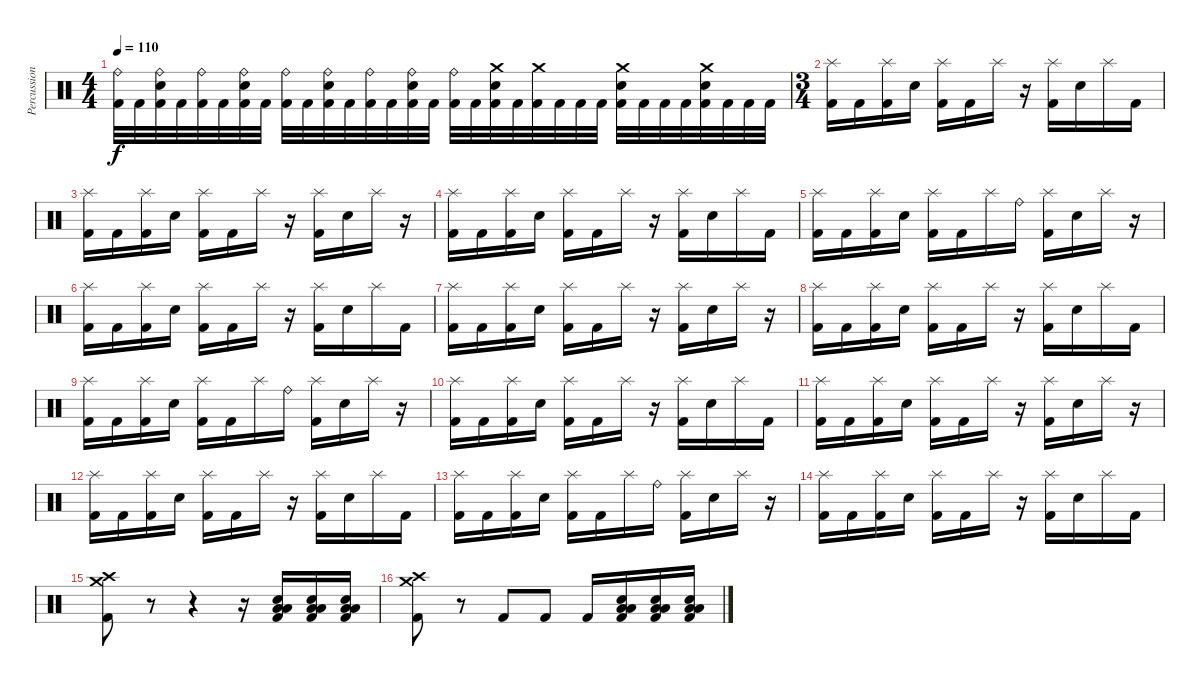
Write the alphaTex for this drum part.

\track ("Percussion" "Percussion") {instrument percussion}
\staff {score}
\articulation defaults
\ts (4 4)
\tempo 110
\clef neutral
\ks c
("Ride (bell)" "Kick (hit) 2").32{dy f} "Kick (hit) 2".32 ("Ride (bell)" "Electric Snare (hit)" "Kick (hit) 2").32 "Kick (hit) 2".32 ("Ride (bell)" "Kick (hit) 2").32 "Kick (hit) 2".32 ("Ride (bell)" "Electric Snare (hit)" "Kick (hit) 2").32 "Kick (hit) 2".32 ("Ride (bell)" "Kick (hit) 2").32 "Kick (hit) 2".32 ("Ride (bell)" "Electric Snare (hit)" "Kick (hit) 2").32 "Kick (hit) 2".32 ("Ride (bell)" "Kick (hit) 2").32 "Kick (hit) 2".32 ("Ride (bell)" "Electric Snare (hit)" "Kick (hit) 2").32 "Kick (hit) 2".32 ("Ride (bell)" "Kick (hit) 2").32 "Kick (hit) 2".32 ("Crash medium (hit)" "Electric Snare (hit)" "Kick (hit) 2").32 "Kick (hit) 2".32 ("Crash medium (hit)" "Kick (hit) 2").32 "Kick (hit) 2".32 "Kick (hit) 2".32 "Kick (hit) 2".32 ("Crash medium (hit)" "Electric Snare (hit)" "Kick (hit) 2").32 "Kick (hit) 2".32 "Kick (hit) 2".32 "Kick (hit) 2".32 ("Crash medium (hit)" "Electric Snare (hit)" "Kick (hit) 2").32 "Kick (hit) 2".32 "Kick (hit) 2".32 "Kick (hit) 2".32 |
\ts (3 4)
("Splash (hit)" "Kick (hit) 2").16 "Kick (hit) 2".16 ("Splash (hit)" "Kick (hit) 2").16 "Electric Snare (hit)".16 ("Splash (hit)" "Kick (hit) 2").16 "Kick (hit) 2".16 "Splash (hit)".16 r.16 ("Splash (hit)" "Kick (hit) 2").16 "Electric Snare (hit)".16 "Splash (hit)".16 "Kick (hit) 2".16 |
("Splash (hit)" "Kick (hit) 2").16 "Kick (hit) 2".16 ("Splash (hit)" "Kick (hit) 2").16 "Electric Snare (hit)".16 ("Splash (hit)" "Kick (hit) 2").16 "Kick (hit) 2".16 "Splash (hit)".16 r.16 ("Splash (hit)" "Kick (hit) 2").16 "Electric Snare (hit)".16 "Splash (hit)".16 r.16 |
("Splash (hit)" "Kick (hit) 2").16 "Kick (hit) 2".16 ("Splash (hit)" "Kick (hit) 2").16 "Electric Snare (hit)".16 ("Splash (hit)" "Kick (hit) 2").16 "Kick (hit) 2".16 "Splash (hit)".16 r.16 ("Splash (hit)" "Kick (hit) 2").16 "Electric Snare (hit)".16 "Splash (hit)".16 "Kick (hit) 2".16 |
("Splash (hit)" "Kick (hit) 2").16 "Kick (hit) 2".16 ("Splash (hit)" "Kick (hit) 2").16 "Electric Snare (hit)".16 ("Splash (hit)" "Kick (hit) 2").16 "Kick (hit) 2".16 "Splash (hit)".16 "Ride (bell)".16 ("Splash (hit)" "Kick (hit) 2").16 "Electric Snare (hit)".16 "Splash (hit)".16 r.16 |
("Splash (hit)" "Kick (hit) 2").16 "Kick (hit) 2".16 ("Splash (hit)" "Kick (hit) 2").16 "Electric Snare (hit)".16 ("Splash (hit)" "Kick (hit) 2").16 "Kick (hit) 2".16 "Splash (hit)".16 r.16 ("Splash (hit)" "Kick (hit) 2").16 "Electric Snare (hit)".16 "Splash (hit)".16 "Kick (hit) 2".16 |
("Splash (hit)" "Kick (hit) 2").16 "Kick (hit) 2".16 ("Splash (hit)" "Kick (hit) 2").16 "Electric Snare (hit)".16 ("Splash (hit)" "Kick (hit) 2").16 "Kick (hit) 2".16 "Splash (hit)".16 r.16 ("Splash (hit)" "Kick (hit) 2").16 "Electric Snare (hit)".16 "Splash (hit)".16 r.16 |
("Splash (hit)" "Kick (hit) 2").16 "Kick (hit) 2".16 ("Splash (hit)" "Kick (hit) 2").16 "Electric Snare (hit)".16 ("Splash (hit)" "Kick (hit) 2").16 "Kick (hit) 2".16 "Splash (hit)".16 r.16 ("Splash (hit)" "Kick (hit) 2").16 "Electric Snare (hit)".16 "Splash (hit)".16 "Kick (hit) 2".16 |
("Splash (hit)" "Kick (hit) 2").16 "Kick (hit) 2".16 ("Splash (hit)" "Kick (hit) 2").16 "Electric Snare (hit)".16 ("Splash (hit)" "Kick (hit) 2").16 "Kick (hit) 2".16 "Splash (hit)".16 "Ride (bell)".16 ("Splash (hit)" "Kick (hit) 2").16 "Electric Snare (hit)".16 "Splash (hit)".16 r.16 |
("Splash (hit)" "Kick (hit) 2").16 "Kick (hit) 2".16 ("Splash (hit)" "Kick (hit) 2").16 "Electric Snare (hit)".16 ("Splash (hit)" "Kick (hit) 2").16 "Kick (hit) 2".16 "Splash (hit)".16 r.16 ("Splash (hit)" "Kick (hit) 2").16 "Electric Snare (hit)".16 "Splash (hit)".16 "Kick (hit) 2".16 |
("Splash (hit)" "Kick (hit) 2").16 "Kick (hit) 2".16 ("Splash (hit)" "Kick (hit) 2").16 "Electric Snare (hit)".16 ("Splash (hit)" "Kick (hit) 2").16 "Kick (hit) 2".16 "Splash (hit)".16 r.16 ("Splash (hit)" "Kick (hit) 2").16 "Electric Snare (hit)".16 "Splash (hit)".16 r.16 |
("Splash (hit)" "Kick (hit) 2").16 "Kick (hit) 2".16 ("Splash (hit)" "Kick (hit) 2").16 "Electric Snare (hit)".16 ("Splash (hit)" "Kick (hit) 2").16 "Kick (hit) 2".16 "Splash (hit)".16 r.16 ("Splash (hit)" "Kick (hit) 2").16 "Electric Snare (hit)".16 "Splash (hit)".16 "Kick (hit) 2".16 |
("Splash (hit)" "Kick (hit) 2").16 "Kick (hit) 2".16 ("Splash (hit)" "Kick (hit) 2").16 "Electric Snare (hit)".16 ("Splash (hit)" "Kick (hit) 2").16 "Kick (hit) 2".16 "Splash (hit)".16 "Ride (bell)".16 ("Splash (hit)" "Kick (hit) 2").16 "Electric Snare (hit)".16 "Splash (hit)".16 r.16 |
("Splash (hit)" "Kick (hit) 2").16 "Kick (hit) 2".16 ("Splash (hit)" "Kick (hit) 2").16 "Electric Snare (hit)".16 ("Splash (hit)" "Kick (hit) 2").16 "Kick (hit) 2".16 "Splash (hit)".16 r.16 ("Splash (hit)" "Kick (hit) 2").16 "Electric Snare (hit)".16 "Splash (hit)".16 "Kick (hit) 2".16 |
("Crash medium (hit)" "Crash high (hit)" "Kick (hit) 2").8 r.8 r.4 r.16 ("Electric Snare (hit)" "Low Floor Tom (hit)" "Low Floor Tom (hit)" "Kick (hit) 2").16 ("Electric Snare (hit)" "Low Floor Tom (hit)" "Low Floor Tom (hit)" "Kick (hit) 2").16 ("Electric Snare (hit)" "Low Floor Tom (hit)" "Low Floor Tom (hit)" "Kick (hit) 2").16 |
("Crash medium (hit)" "Crash high (hit)" "Kick (hit) 2").8 r.8 "Kick (hit) 2".8 "Kick (hit) 2".8 "Kick (hit) 2".16 ("Electric Snare (hit)" "Low Floor Tom (hit)" "Low Floor Tom (hit)" "Kick (hit) 2").16 ("Electric Snare (hit)" "Low Floor Tom (hit)" "Low Floor Tom (hit)" "Kick (hit) 2").16 ("Electric Snare (hit)" "Low Floor Tom (hit)" "Low Floor Tom (hit)" "Kick (hit) 2").16
